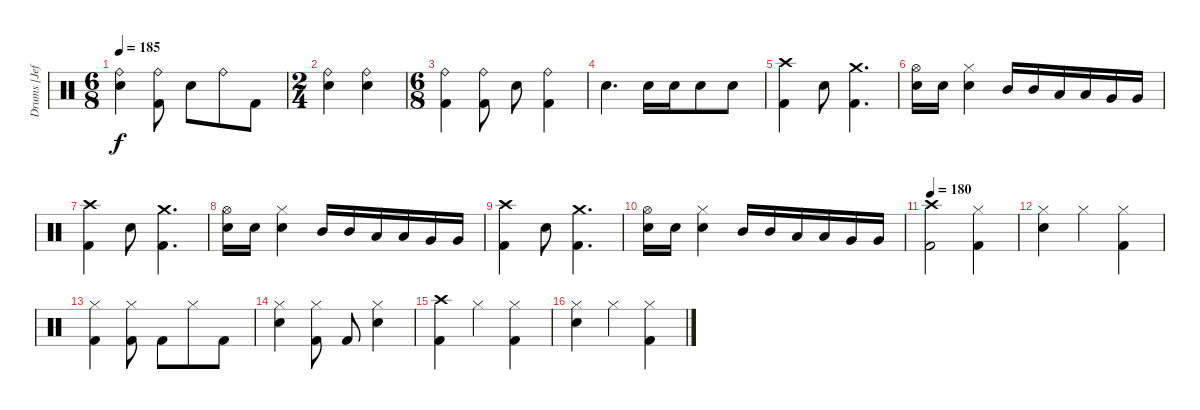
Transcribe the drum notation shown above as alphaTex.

\track ("Drums [Jeff]" "Drums [Jef") {instrument percussion}
\staff {score}
\articulation defaults
\ts (6 8)
\tempo 185
\clef neutral
\ks c
("Ride (bell)" "Electric Snare (hit)").4{dy f} ("Ride (bell)" "Kick (hit) 2").8 "Electric Snare (hit)".8 "Ride (bell)".8 "Kick (hit) 2".8 |
\ts (2 4)
("Ride (bell)" "Electric Snare (hit)").4 ("Ride (bell)" "Electric Snare (hit)").4 |
\ts (6 8)
("Ride (bell)" "Kick (hit) 2").4 ("Ride (bell)" "Kick (hit) 2").8 "Electric Snare (hit)".8 ("Ride (bell)" "Kick (hit) 2").4 |
"Electric Snare (hit)".4{d} "Electric Snare (hit)".16 "Electric Snare (hit)".16 "Electric Snare (hit)".8 "Electric Snare (hit)".8 |
("Crash high (hit)" "Kick (hit) 2").4 "Electric Snare (hit)".8 ("Crash medium (hit)" "Kick (hit) 2").4{d} |
("Hi-Hat (open)" "Electric Snare (hit)").16 "Electric Snare (hit)".16 ("Hi-Hat (closed)" "Electric Snare (hit)").4 "Mid Tom (hit)".16 "Mid Tom (hit)".16 "Low Tom (hit)".16 "Low Tom (hit)".16 "Very Low Tom (hit)".16 "Very Low Tom (hit)".16 |
("Crash high (hit)" "Kick (hit) 2").4 "Electric Snare (hit)".8 ("Crash medium (hit)" "Kick (hit) 2").4{d} |
("Hi-Hat (open)" "Electric Snare (hit)").16 "Electric Snare (hit)".16 ("Hi-Hat (closed)" "Electric Snare (hit)").4 "Mid Tom (hit)".16 "Mid Tom (hit)".16 "Low Tom (hit)".16 "Low Tom (hit)".16 "Very Low Tom (hit)".16 "Very Low Tom (hit)".16 |
("Crash high (hit)" "Kick (hit) 2").4 "Electric Snare (hit)".8 ("Crash medium (hit)" "Kick (hit) 2").4{d} |
("Hi-Hat (open)" "Electric Snare (hit)").16 "Electric Snare (hit)".16 ("Hi-Hat (closed)" "Electric Snare (hit)").4 "Mid Tom (hit)".16 "Mid Tom (hit)".16 "Low Tom (hit)".16 "Low Tom (hit)".16 "Very Low Tom (hit)".16 "Very Low Tom (hit)".16 |
\tempo 180
("Crash high (hit)" "Kick (hit) 2").2 ("Hi-Hat (closed)" "Kick (hit) 2").4 |
("Hi-Hat (closed)" "Electric Snare (hit)").4 "Hi-Hat (closed)".4 ("Hi-Hat (closed)" "Kick (hit) 2").4 |
("Hi-Hat (closed)" "Kick (hit) 2").4 ("Hi-Hat (closed)" "Kick (hit) 2").8 "Kick (hit) 2".8 "Hi-Hat (closed)".8 "Kick (hit) 2".8 |
("Hi-Hat (closed)" "Electric Snare (hit)").4 ("Hi-Hat (closed)" "Kick (hit) 2").8 "Kick (hit) 2".8 ("Hi-Hat (closed)" "Electric Snare (hit)").4 |
("Crash high (hit)" "Kick (hit) 2").4 "Hi-Hat (closed)".4 ("Hi-Hat (closed)" "Kick (hit) 2").4 |
("Hi-Hat (closed)" "Electric Snare (hit)").4 "Hi-Hat (closed)".4 ("Hi-Hat (closed)" "Kick (hit) 2").4
